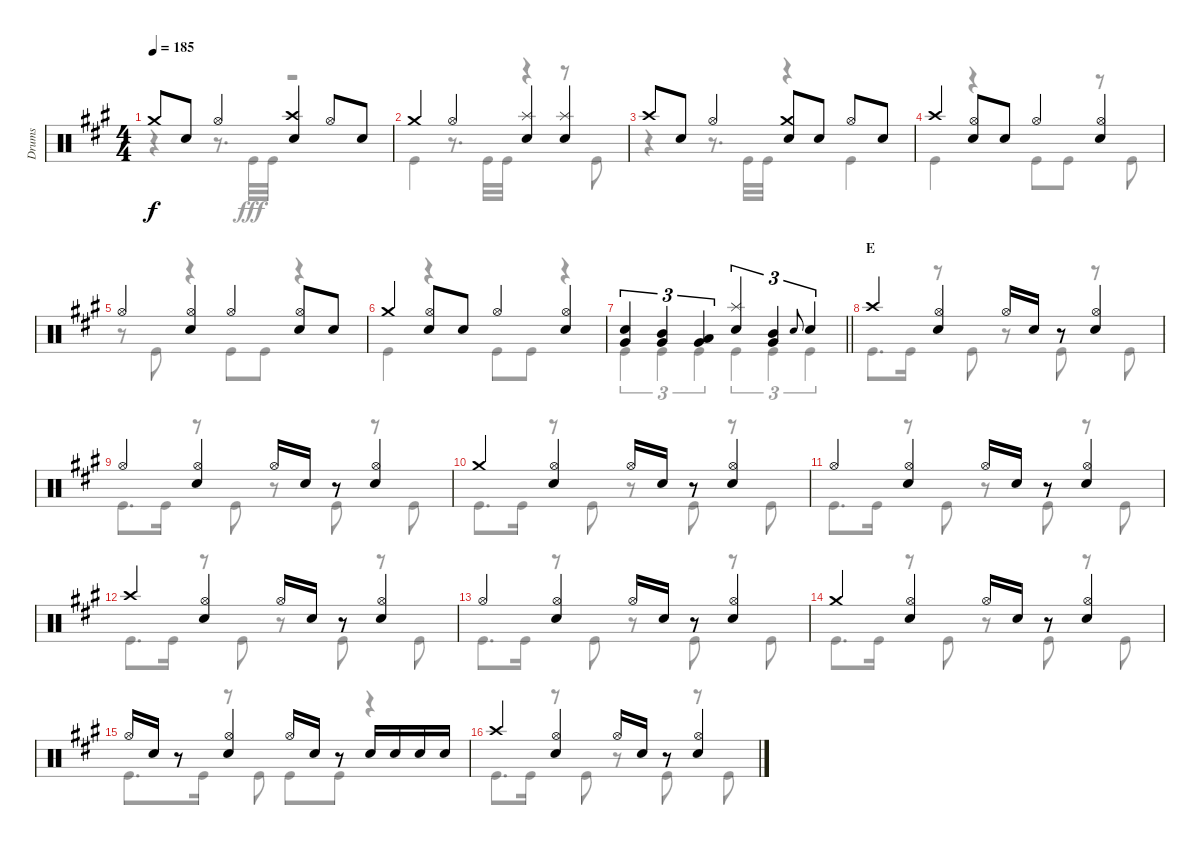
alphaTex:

\track ("Drums" "Drums") {instrument percussion}
\staff {score}
\articulation defaults
\voice
\ts (4 4)
\tempo 185
\clef neutral
\ks a "Crash medium (hit)".8{dy f} "Snare (hit) 2".8 "Hi-Hat (open)".4
("Crash high (hit)" "Snare (hit) 2").4 "Hi-Hat (open)".8 "Snare (hit) 2".8 |
"Crash medium (hit)".4 "Hi-Hat (open)".4 ("Splash (hit)" "Snare (hit) 2").4 ("Splash (hit)" "Snare (hit) 2").4 |
"Crash high (hit)".8 "Snare (hit) 2".8 "Hi-Hat (open)".4 ("Crash medium (hit)" "Snare (hit) 2").8 "Snare (hit) 2".8 "Hi-Hat (open)".8 "Snare (hit) 2".8 |
"Crash high (hit)".4 ("Hi-Hat (open)" "Snare (hit) 2").8 "Snare (hit) 2".8 "Hi-Hat (open)".4 ("Hi-Hat (open)" "Snare (hit) 2").4 |
"Hi-Hat (open)".4 ("Hi-Hat (open)" "Snare (hit) 2").4 "Hi-Hat (open)".4 ("Hi-Hat (open)" "Snare (hit) 2").8 "Snare (hit) 2".8 |
"Crash medium (hit)".4 ("Hi-Hat (open)" "Snare (hit) 2").8 "Snare (hit) 2".8 "Hi-Hat (open)".4 ("Hi-Hat (open)" "Snare (hit) 2").4 |
\barLineRight lightlight
("Snare (hit) 2" "Very Low Tom (hit)").4{tu (3 2)} ("Mid Tom (hit)" "Very Low Tom (hit)").4{tu (3 2)} ("Low Tom (hit)" "Very Low Tom (hit)").4{tu (3 2)} ("Splash (hit)" "Snare (hit) 2").4{tu (3 2)} ("Mid Tom (hit)" "Very Low Tom (hit)").4{tu (3 2)} "Snare (hit) 2".8{gr onbeat} "Snare (hit) 2".4{tu (3 2)} |
\section ("" "E")
"Crash high (hit)".4 ("Hi-Hat (open)" "Snare (hit) 2").4 "Hi-Hat (open)".16 "Snare (hit) 2".16 r.8 ("Hi-Hat (open)" "Snare (hit) 2").4 |
"Hi-Hat (open)".4 ("Hi-Hat (open)" "Snare (hit) 2").4 "Hi-Hat (open)".16 "Snare (hit) 2".16 r.8 ("Hi-Hat (open)" "Snare (hit) 2").4 |
"Crash medium (hit)".4 ("Hi-Hat (open)" "Snare (hit) 2").4 "Hi-Hat (open)".16 "Snare (hit) 2".16 r.8 ("Hi-Hat (open)" "Snare (hit) 2").4 |
"Hi-Hat (open)".4 ("Hi-Hat (open)" "Snare (hit) 2").4 "Hi-Hat (open)".16 "Snare (hit) 2".16 r.8 ("Hi-Hat (open)" "Snare (hit) 2").4 |
"Crash high (hit)".4 ("Hi-Hat (open)" "Snare (hit) 2").4 "Hi-Hat (open)".16 "Snare (hit) 2".16 r.8 ("Hi-Hat (open)" "Snare (hit) 2").4 |
"Hi-Hat (open)".4 ("Hi-Hat (open)" "Snare (hit) 2").4 "Hi-Hat (open)".16 "Snare (hit) 2".16 r.8 ("Hi-Hat (open)" "Snare (hit) 2").4 |
"Crash medium (hit)".4 ("Hi-Hat (open)" "Snare (hit) 2").4 "Hi-Hat (open)".16 "Snare (hit) 2".16 r.8 ("Hi-Hat (open)" "Snare (hit) 2").4 |
"Hi-Hat (open)".16 "Snare (hit) 2".16 r.8 ("Hi-Hat (open)" "Snare (hit) 2").4 "Hi-Hat (open)".16 "Snare (hit) 2".16 r.8 "Snare (hit) 2".16 "Snare (hit) 2".16 "Snare (hit) 2".16 "Snare (hit) 2".16 |
"Crash high (hit)".4 ("Hi-Hat (open)" "Snare (hit) 2").4 "Hi-Hat (open)".16 "Snare (hit) 2".16 r.8 ("Hi-Hat (open)" "Snare (hit) 2").4
\voice
\clef neutral
\ottava regular
\simile none
\ks a
r.4{dy fff} r.8{d} "Kick (hit)".32 "Kick (hit)".32 r.2 |
"Kick (hit)".4 r.8{d} "Kick (hit)".32 "Kick (hit)".32 r.4 r.8 "Kick (hit)".8 |
r.4 r.8{d} "Kick (hit)".32 "Kick (hit)".32 r.4 "Kick (hit)".4 |
"Kick (hit)".4 r.4 "Kick (hit)".8 "Kick (hit)".8 r.8 "Kick (hit)".8 |
r.8 "Kick (hit)".8 r.4 "Kick (hit)".8 "Kick (hit)".8 r.4 |
"Kick (hit)".4 r.4 "Kick (hit)".8 "Kick (hit)".8 r.4 |
\barLineRight lightlight "Kick (hit)".4{tu (3 2)} "Kick (hit)".4{tu (3 2)} "Kick (hit)".4{tu (3 2)} "Kick (hit)".4{tu (3 2)} "Kick (hit)".4{tu (3 2)} "Kick (hit)".4{tu (3 2)}
|
"Kick (hit)".8{d} "Kick (hit)".16 r.8 "Kick (hit)".8 r.8 "Kick (hit)".8 r.8 "Kick (hit)".8 |
"Kick (hit)".8{d} "Kick (hit)".16 r.8 "Kick (hit)".8 r.8 "Kick (hit)".8 r.8 "Kick (hit)".8 |
"Kick (hit)".8{d} "Kick (hit)".16 r.8 "Kick (hit)".8 r.8 "Kick (hit)".8 r.8 "Kick (hit)".8 |
"Kick (hit)".8{d} "Kick (hit)".16 r.8 "Kick (hit)".8 r.8 "Kick (hit)".8 r.8 "Kick (hit)".8 |
"Kick (hit)".8{d} "Kick (hit)".16 r.8 "Kick (hit)".8 r.8 "Kick (hit)".8 r.8 "Kick (hit)".8 |
"Kick (hit)".8{d} "Kick (hit)".16 r.8 "Kick (hit)".8 r.8 "Kick (hit)".8 r.8 "Kick (hit)".8 |
"Kick (hit)".8{d} "Kick (hit)".16 r.8 "Kick (hit)".8 r.8 "Kick (hit)".8 r.8 "Kick (hit)".8 |
"Kick (hit)".8{d} "Kick (hit)".16 r.8 "Kick (hit)".8 "Kick (hit)".8 "Kick (hit)".8 r.4 |
"Kick (hit)".8{d} "Kick (hit)".16 r.8 "Kick (hit)".8 r.8 "Kick (hit)".8 r.8 "Kick (hit)".8
